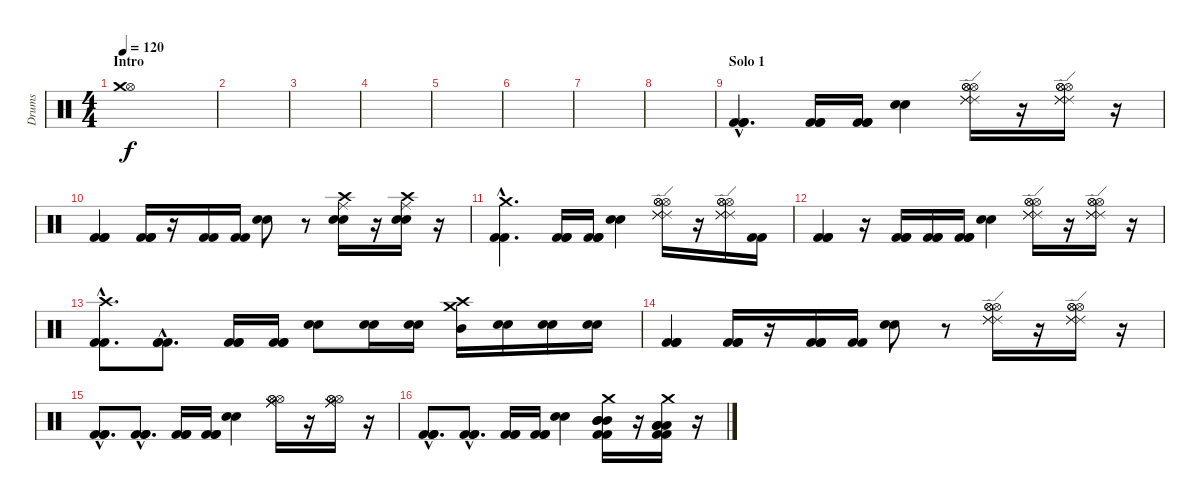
\track ("Drums" "Drums") {instrument percussion}
\staff {score}
\articulation defaults
\ts (4 4)
\section ("" "Intro")
\tempo 120
\clef neutral
\ks c
("Hi-Hat (open)" "Crash medium (hit)").1{dy f} |
|
|
|
|
|
|
|
\section ("" "Solo 1")
("Kick (hit) 2"{hac} "Kick (hit) 2"{hac} "Kick (hit) 2"{hac}).4{d} ("Kick (hit) 2" "Kick (hit) 2" "Kick (hit) 2").16 ("Kick (hit) 2" "Kick (hit) 2" "Kick (hit) 2").16 ("Electric Snare (hit)" "Snare (hit) 2").4 ("Ride (edge) 2" "Ride (edge) 2" "Ride (edge) 2" "Hi-Hat (open)" "Hi-Hat (open)" "Hi-Hat (open)").16 r.16 ("Ride (edge) 2" "Ride (edge) 2" "Ride (edge) 2" "Hi-Hat (open)" "Hi-Hat (open)" "Hi-Hat (open)").16 r.16 |
("Kick (hit) 2" "Kick (hit) 2" "Kick (hit) 2").4 ("Kick (hit) 2" "Kick (hit) 2" "Kick (hit) 2").16 r.16 ("Kick (hit) 2" "Kick (hit) 2").16 ("Kick (hit) 2" "Kick (hit) 2").16 ("Snare (hit) 2" "Electric Snare (hit)").8 r.8 ("Ride (middle)" "Crash high (hit)" "Snare (hit) 2" "Snare (hit) 2").16 r.16 ("Ride (middle)" "Crash high (hit)" "Snare (hit) 2" "Snare (hit) 2").16 r.16 |
("Kick (hit) 2"{hac} "Kick (hit) 2"{hac} "Crash medium (hit)"{hac}).4{d} ("Kick (hit) 2" "Kick (hit) 2" "Kick (hit) 2").16 ("Kick (hit) 2" "Kick (hit) 2" "Kick (hit) 2").16 ("Electric Snare (hit)" "Snare (hit) 2").4 ("Ride (edge) 2" "Ride (edge) 2" "Hi-Hat (open)" "Hi-Hat (open)" "Hi-Hat (open)" "Ride (edge) 2").16 r.16 ("Ride (edge) 2" "Ride (edge) 2" "Ride (edge) 2" "Hi-Hat (open)" "Hi-Hat (open)" "Hi-Hat (open)").16 ("Kick (hit) 2" "Kick (hit) 2").16 |
("Kick (hit) 2" "Kick (hit) 2" "Kick (hit) 2").4 r.16 ("Kick (hit) 2" "Kick (hit) 2" "Kick (hit) 2").16 ("Kick (hit) 2" "Kick (hit) 2" "Kick (hit) 2").16 ("Kick (hit) 2" "Kick (hit) 2" "Kick (hit) 2").16 ("Snare (hit) 2" "Snare (hit) 2").4 ("Ride (edge) 2" "Ride (edge) 2" "Ride (edge) 2" "Hi-Hat (open)" "Hi-Hat (open)" "Hi-Hat (open)").16 r.16 ("Hi-Hat (open)" "Hi-Hat (open)" "Hi-Hat (open)" "Ride (edge) 2" "Ride (edge) 2" "Ride (edge) 2").16 r.16 |
("Kick (hit) 2"{hac} "Crash high (hit)"{hac} "Kick (hit) 2"{hac}).8{d} ("Kick (hit) 2"{hac} "Kick (hit) 2"{hac} "Kick (hit) 2"{hac}).8{d} ("Kick (hit) 2" "Kick (hit) 2" "Kick (hit) 2").16 ("Kick (hit) 2" "Kick (hit) 2" "Kick (hit) 2").16 ("Snare (hit) 2" "Snare (hit) 2").8 ("Snare (hit) 2" "Snare (hit) 2").16 ("Snare (hit) 2" "Snare (hit) 2").16 ("Mid Tom (hit)" "Crash high (hit)" "Crash medium (hit)").16 ("Snare (hit) 2" "Snare (hit) 2").16 ("Snare (hit) 2" "Snare (hit) 2").16 ("Snare (hit) 2" "Snare (hit) 2").16 |
("Kick (hit) 2" "Kick (hit) 2" "Kick (hit) 2").4 ("Kick (hit) 2" "Kick (hit) 2" "Kick (hit) 2").16 r.16 ("Kick (hit) 2" "Kick (hit) 2" "Kick (hit) 2").16 ("Kick (hit) 2" "Kick (hit) 2").16 ("Snare (hit) 2" "Snare (hit) 2").8 r.8 ("Hi-Hat (open)" "Hi-Hat (open)" "Hi-Hat (open)" "Ride (edge) 2" "Ride (edge) 2" "Ride (edge) 2").16 r.16 ("Hi-Hat (open)" "Hi-Hat (open)" "Hi-Hat (open)" "Ride (edge) 2" "Ride (edge) 2" "Ride (edge) 2").16 r.16 |
("Kick (hit) 2"{hac} "Kick (hit) 2"{hac} "Kick (hit) 2"{hac}).8{d} ("Kick (hit) 2"{hac} "Kick (hit) 2"{hac} "Kick (hit) 2"{hac}).8{d} ("Kick (hit) 2" "Kick (hit) 2" "Kick (hit) 2").16 ("Kick (hit) 2" "Kick (hit) 2" "Kick (hit) 2").16 ("Snare (hit) 2" "Snare (hit) 2").4 ("Ride (middle)" "Ride (middle)" "Hi-Hat (open)" "Hi-Hat (open)" "Ride (middle)" "Hi-Hat (open)").16 r.16 ("Ride (middle)" "Ride (middle)" "Hi-Hat (open)" "Hi-Hat (open)" "Ride (middle)" "Hi-Hat (open)").16 r.16 |
("Kick (hit) 2"{hac} "Kick (hit) 2"{hac} "Kick (hit) 2"{hac}).8{d} ("Kick (hit) 2"{hac} "Kick (hit) 2"{hac} "Kick (hit) 2"{hac}).8{d} ("Kick (hit) 2" "Kick (hit) 2" "Kick (hit) 2").16 ("Kick (hit) 2" "Kick (hit) 2" "Kick (hit) 2").16 ("Snare (hit) 2" "Snare (hit) 2").4 ("Mid Tom (hit)" "Mid Tom (hit)" "Mid Tom (hit)" "Crash medium (hit)" "Kick (hit) 2" "Kick (hit) 2").16 r.16 ("Low Tom (hit)" "Low Tom (hit)" "Low Tom (hit)" "Crash medium (hit)" "Kick (hit) 2" "Kick (hit) 2").16 r.16
